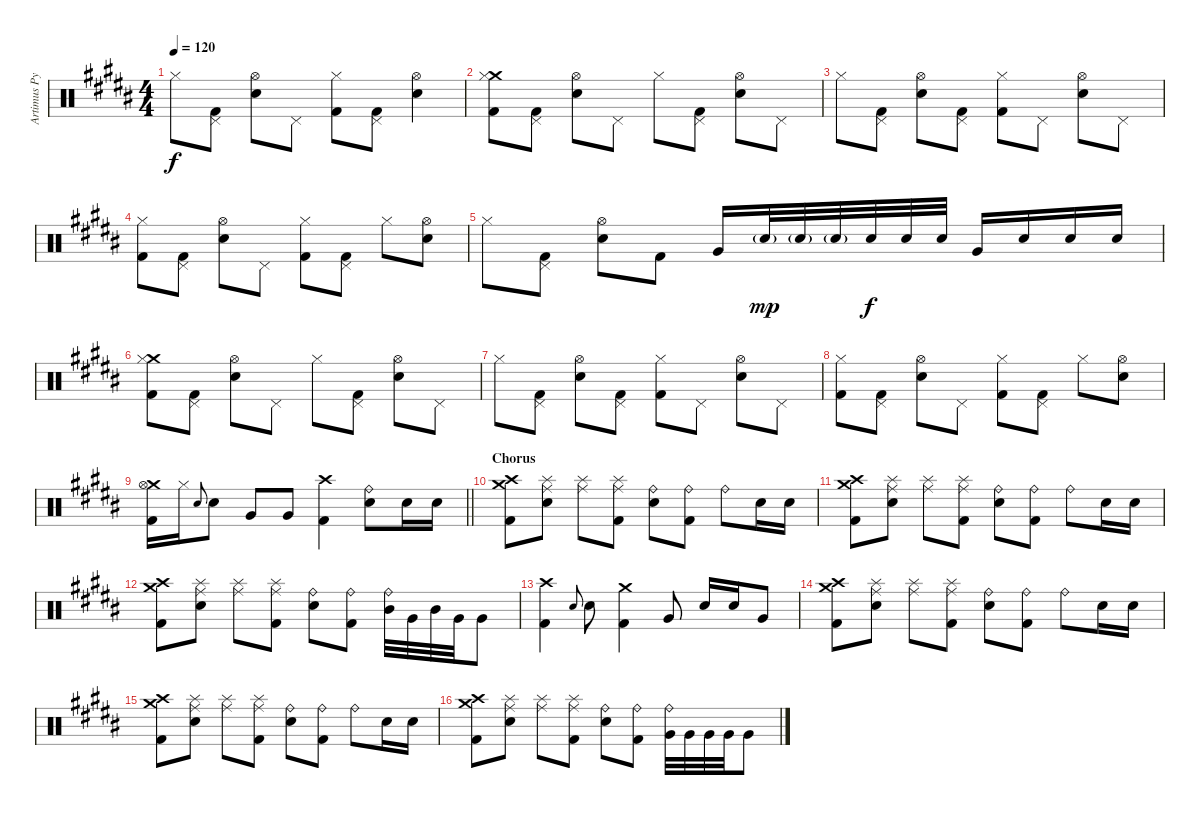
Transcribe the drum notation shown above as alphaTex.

\track ("Artimus Pyle - Drums" "Artimus Py") {instrument percussion}
\staff {score}
\articulation defaults
\ts (4 4)
\tempo 120
\clef neutral
\ks b "Hi-Hat (closed)".8{dy f}
("Pedal Hi-Hat (hit)" "Kick (hit) 2").8 ("Snare (hit) 2" "Hi-Hat (open)").8 "Pedal Hi-Hat (hit)".8 ("Hi-Hat (closed)" "Kick (hit) 2").8 ("Pedal Hi-Hat (hit)" "Kick (hit) 2").8 ("Snare (hit) 2" "Hi-Hat (open)").4 |
("Crash medium (hit)" "Hi-Hat (closed)" "Kick (hit) 2").8 ("Pedal Hi-Hat (hit)" "Kick (hit) 2").8 ("Snare (hit) 2" "Hi-Hat (open)").8 "Pedal Hi-Hat (hit)".8 "Hi-Hat (closed)".8 ("Pedal Hi-Hat (hit)" "Kick (hit) 2").8 ("Snare (hit) 2" "Hi-Hat (open)").8 "Pedal Hi-Hat (hit)".8 |
"Hi-Hat (closed)".8 ("Pedal Hi-Hat (hit)" "Kick (hit) 2").8 ("Snare (hit) 2" "Hi-Hat (open)").8 ("Pedal Hi-Hat (hit)" "Kick (hit) 2").8 ("Hi-Hat (closed)" "Kick (hit) 2").8 "Pedal Hi-Hat (hit)".8 ("Snare (hit) 2" "Hi-Hat (open)").8 "Pedal Hi-Hat (hit)".8 |
("Hi-Hat (closed)" "Kick (hit) 2").8 ("Pedal Hi-Hat (hit)" "Kick (hit) 2").8 ("Snare (hit) 2" "Hi-Hat (open)").8 "Pedal Hi-Hat (hit)".8 ("Hi-Hat (closed)" "Kick (hit) 2").8 ("Pedal Hi-Hat (hit)" "Kick (hit) 2").8 "Hi-Hat (closed)".8 ("Snare (hit) 2" "Hi-Hat (open)").8 |
"Hi-Hat (closed)".8 ("Pedal Hi-Hat (hit)" "Kick (hit) 2").8 ("Snare (hit) 2" "Hi-Hat (open)").8 "Kick (hit) 2".8 "Very Low Tom (hit)".16 "Snare (hit) 2"{g}.32{dy mp} "Snare (hit) 2"{g}.32 "Snare (hit) 2"{g}.32 "Snare (hit) 2".32{dy f} "Snare (hit) 2".32 "Snare (hit) 2".32 "Very Low Tom (hit)".16 "Snare (hit) 2".16 "Snare (hit) 2".16 "Snare (hit) 2".16 |
("Crash medium (hit)" "Hi-Hat (closed)" "Kick (hit) 2").8 ("Pedal Hi-Hat (hit)" "Kick (hit) 2").8 ("Snare (hit) 2" "Hi-Hat (open)").8 "Pedal Hi-Hat (hit)".8 "Hi-Hat (closed)".8 ("Pedal Hi-Hat (hit)" "Kick (hit) 2").8 ("Snare (hit) 2" "Hi-Hat (open)").8 "Pedal Hi-Hat (hit)".8 |
"Hi-Hat (closed)".8 ("Pedal Hi-Hat (hit)" "Kick (hit) 2").8 ("Snare (hit) 2" "Hi-Hat (open)").8 ("Pedal Hi-Hat (hit)" "Kick (hit) 2").8 ("Hi-Hat (closed)" "Kick (hit) 2").8 "Pedal Hi-Hat (hit)".8 ("Snare (hit) 2" "Hi-Hat (open)").8 "Pedal Hi-Hat (hit)".8 |
("Hi-Hat (closed)" "Kick (hit) 2").8 ("Pedal Hi-Hat (hit)" "Kick (hit) 2").8 ("Snare (hit) 2" "Hi-Hat (open)").8 "Pedal Hi-Hat (hit)".8 ("Hi-Hat (closed)" "Kick (hit) 2").8 ("Pedal Hi-Hat (hit)" "Kick (hit) 2").8 "Hi-Hat (closed)".8 ("Snare (hit) 2" "Hi-Hat (open)").8 |
\barLineRight lightlight
("Crash medium (hit)" "Hi-Hat (open)" "Kick (hit) 2").16 "Hi-Hat (closed)".16 "Snare (hit) 2".8{gr onbeat} "Snare (hit) 2".8 "Very Low Tom (hit)".8 "Very Low Tom (hit)".8 ("Crash high (hit)" "Kick (hit) 2").4 ("Ride (bell)" "Snare (hit) 2").8 "Snare (hit) 2".16 "Snare (hit) 2".16 |
\section ("" "Chorus")
("Crash high (hit)" "Crash medium (hit)" "Kick (hit) 2").8 ("Ride (middle)" "Splash (hit)" "Snare (hit) 2").8 ("Ride (middle)" "Splash (hit)").8 ("Ride (middle)" "Splash (hit)" "Kick (hit) 2").8 ("Ride (bell)" "Snare (hit) 2").8 ("Ride (bell)" "Kick (hit) 2").8 "Ride (bell)".8 "Snare (hit) 2".16 "Snare (hit) 2".16 |
("Crash high (hit)" "Crash medium (hit)" "Kick (hit) 2").8 ("Ride (middle)" "Splash (hit)" "Snare (hit) 2").8 ("Ride (middle)" "Splash (hit)").8 ("Ride (middle)" "Splash (hit)" "Kick (hit) 2").8 ("Ride (bell)" "Snare (hit) 2").8 ("Ride (bell)" "Kick (hit) 2").8 "Ride (bell)".8 "Snare (hit) 2".16 "Snare (hit) 2".16 |
("Crash high (hit)" "Crash medium (hit)" "Kick (hit) 2").8 ("Ride (middle)" "Splash (hit)" "Snare (hit) 2").8 ("Ride (middle)" "Splash (hit)").8 ("Ride (middle)" "Splash (hit)" "Kick (hit) 2").8 ("Ride (bell)" "Snare (hit) 2").8 ("Ride (bell)" "Kick (hit) 2").8 ("Ride (bell)" "Mid Tom (hit)").32 "Very Low Tom (hit)".32 "Mid Tom (hit)".32 "Very Low Tom (hit)".32 "Very Low Tom (hit)".8 |
("Crash high (hit)" "Kick (hit) 2").4 "Snare (hit) 2".8{gr onbeat} "Snare (hit) 2".8 ("Crash medium (hit)" "Kick (hit) 2").4 "Very Low Tom (hit)".8 "Snare (hit) 2".16 "Snare (hit) 2".16 "Very Low Tom (hit)".8 |
("Crash high (hit)" "Crash medium (hit)" "Kick (hit) 2").8 ("Ride (middle)" "Splash (hit)" "Snare (hit) 2").8 ("Ride (middle)" "Splash (hit)").8 ("Ride (middle)" "Splash (hit)" "Kick (hit) 2").8 ("Ride (bell)" "Snare (hit) 2").8 ("Ride (bell)" "Kick (hit) 2").8 "Ride (bell)".8 "Snare (hit) 2".16 "Snare (hit) 2".16 |
("Crash high (hit)" "Crash medium (hit)" "Kick (hit) 2").8 ("Ride (middle)" "Splash (hit)" "Snare (hit) 2").8 ("Ride (middle)" "Splash (hit)").8 ("Ride (middle)" "Splash (hit)" "Kick (hit) 2").8 ("Ride (bell)" "Snare (hit) 2").8 ("Ride (bell)" "Kick (hit) 2").8 "Ride (bell)".8 "Snare (hit) 2".16 "Snare (hit) 2".16 |
("Crash high (hit)" "Crash medium (hit)" "Kick (hit) 2").8 ("Ride (middle)" "Splash (hit)" "Snare (hit) 2").8 ("Ride (middle)" "Splash (hit)").8 ("Ride (middle)" "Splash (hit)" "Kick (hit) 2").8 ("Ride (bell)" "Snare (hit) 2").8 ("Ride (bell)" "Kick (hit) 2").8 ("Ride (bell)" "Very Low Tom (hit)").32 "Very Low Tom (hit)".32 "Very Low Tom (hit)".32 "Very Low Tom (hit)".32 "Very Low Tom (hit)".8
